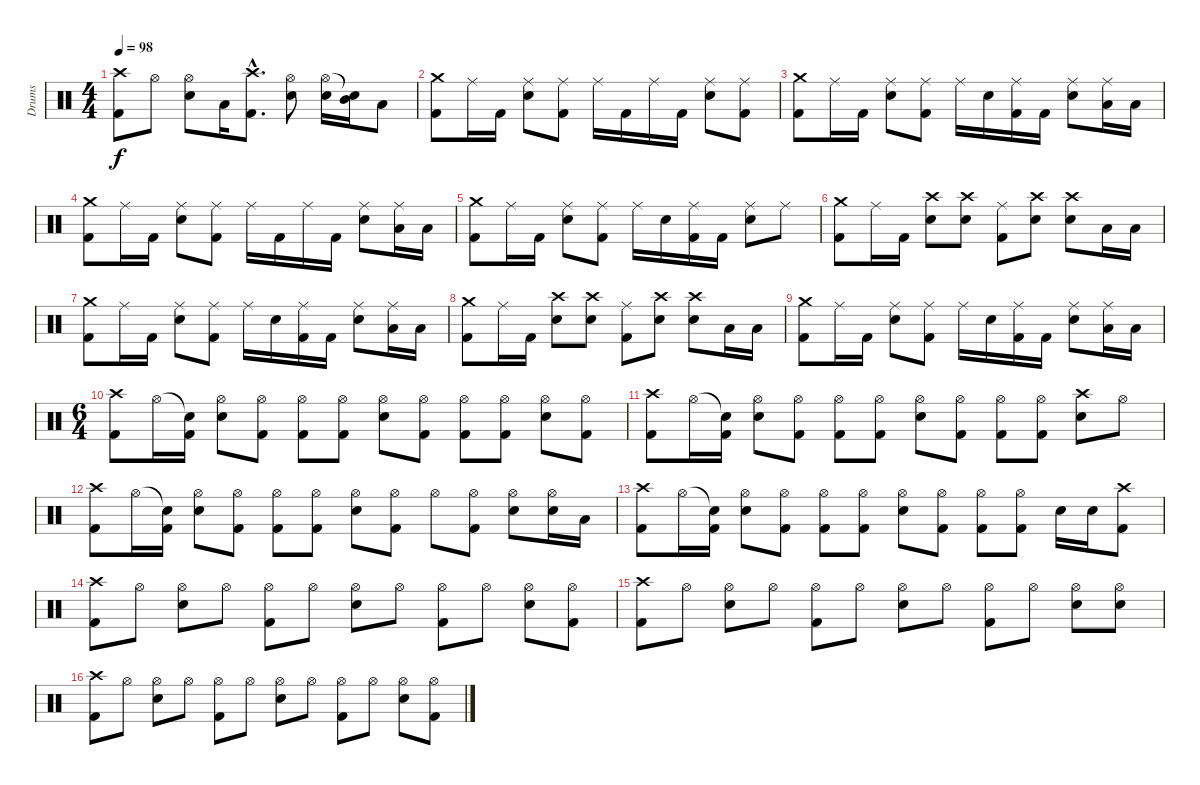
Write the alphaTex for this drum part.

\track ("Drums" "Drums") {instrument percussion}
\staff {score}
\articulation defaults
\ts (4 4)
\tempo 98
\clef neutral
\ks c
("Crash high (hit)" "Kick (hit) 2").8{dy f} "Hi-Hat (open)".8 ("Hi-Hat (open)" "Snare (hit) 2").8 "Low Tom (hit)".16 ("Crash high (hit)"{hac} "Kick (hit) 2"{hac}).8{d} ("Hi-Hat (open)" "Snare (hit) 2").8 ("Hi-Hat (open)" "Snare (hit) 2").16 ("Snare (hit)"{t} "Mid Tom (hit)").16 "Low Tom (hit)".8 |
("Crash medium (hit)" "Kick (hit) 2").8 "Ride (middle)".16 "Kick (hit) 2".16 ("Ride (middle)" "Snare (hit) 2").8 ("Ride (middle)" "Kick (hit) 2").8 "Ride (middle)".16 "Kick (hit) 2".16 "Ride (middle)".16 "Kick (hit) 2".16 ("Ride (middle)" "Snare (hit) 2").8 ("Ride (middle)" "Kick (hit) 2").8 |
("Crash medium (hit)" "Kick (hit) 2").8 "Ride (middle)".16 "Kick (hit) 2".16 ("Ride (middle)" "Snare (hit) 2").8 ("Ride (middle)" "Kick (hit) 2").8 "Ride (middle)".16 "Snare (hit) 2".16 ("Ride (middle)" "Kick (hit) 2").16 "Kick (hit) 2".16 ("Ride (middle)" "Snare (hit) 2").8 ("Ride (middle)" "Low Tom (hit)").16 "Low Tom (hit)".16 |
("Crash medium (hit)" "Kick (hit) 2").8 "Ride (middle)".16 "Kick (hit) 2".16 ("Ride (middle)" "Snare (hit) 2").8 ("Ride (middle)" "Kick (hit) 2").8 "Ride (middle)".16 "Kick (hit) 2".16 "Ride (middle)".16 "Kick (hit) 2".16 ("Ride (middle)" "Snare (hit) 2").8 ("Ride (middle)" "Low Tom (hit)").16 "Low Tom (hit)".16 |
("Crash medium (hit)" "Kick (hit) 2").8 "Ride (middle)".16 "Kick (hit) 2".16 ("Ride (middle)" "Snare (hit) 2").8 ("Ride (middle)" "Kick (hit) 2").8 "Ride (middle)".16 "Snare (hit) 2".16 ("Ride (middle)" "Kick (hit) 2").16 "Kick (hit) 2".16 ("Ride (middle)" "Snare (hit) 2").8 "Ride (middle)".8 |
("Crash medium (hit)" "Kick (hit) 2").8 "Ride (middle)".16 "Kick (hit) 2".16 ("Crash high (hit)" "Snare (hit) 2").8 ("Crash high (hit)" "Snare (hit) 2").8 ("Ride (middle)" "Kick (hit) 2").8 ("Crash high (hit)" "Snare (hit) 2").8 ("Crash high (hit)" "Snare (hit) 2").8 "Low Tom (hit)".16 "Low Tom (hit)".16 |
("Crash medium (hit)" "Kick (hit) 2").8 "Ride (middle)".16 "Kick (hit) 2".16 ("Ride (middle)" "Snare (hit) 2").8 ("Ride (middle)" "Kick (hit) 2").8 "Ride (middle)".16 "Snare (hit) 2".16 ("Ride (middle)" "Kick (hit) 2").16 "Kick (hit) 2".16 ("Ride (middle)" "Snare (hit) 2").8 ("Ride (middle)" "Low Tom (hit)").16 "Low Tom (hit)".16 |
("Crash medium (hit)" "Kick (hit) 2").8 "Ride (middle)".16 "Kick (hit) 2".16 ("Crash high (hit)" "Snare (hit) 2").8 ("Crash high (hit)" "Snare (hit) 2").8 ("Ride (middle)" "Kick (hit) 2").8 ("Crash high (hit)" "Snare (hit) 2").8 ("Crash high (hit)" "Snare (hit) 2").8 "Low Tom (hit)".16 "Low Tom (hit)".16 |
("Crash medium (hit)" "Kick (hit) 2").8 "Ride (middle)".16 "Kick (hit) 2".16 ("Ride (middle)" "Snare (hit) 2").8 ("Ride (middle)" "Kick (hit) 2").8 "Ride (middle)".16 "Snare (hit) 2".16 ("Ride (middle)" "Kick (hit) 2").16 "Kick (hit) 2".16 ("Ride (middle)" "Snare (hit) 2").8 ("Ride (middle)" "Low Tom (hit)").16 "Low Tom (hit)".16 |
\ts (6 4)
("Crash high (hit)" "Kick (hit) 2").8 "Hi-Hat (open)".16 ("Snare (hit)"{t} "Kick (hit) 2").16 ("Hi-Hat (open)" "Snare (hit) 2").8 ("Hi-Hat (open)" "Kick (hit) 2").8 ("Hi-Hat (open)" "Kick (hit) 2").8 ("Hi-Hat (open)" "Kick (hit) 2").8 ("Hi-Hat (open)" "Snare (hit) 2").8 ("Hi-Hat (open)" "Kick (hit) 2").8 ("Hi-Hat (open)" "Kick (hit) 2").8 ("Hi-Hat (open)" "Kick (hit) 2").8 ("Hi-Hat (open)" "Snare (hit) 2").8 ("Hi-Hat (open)" "Kick (hit) 2").8 |
("Crash high (hit)" "Kick (hit) 2").8 "Hi-Hat (open)".16 ("Snare (hit)"{t} "Kick (hit) 2").16 ("Hi-Hat (open)" "Snare (hit) 2").8 ("Hi-Hat (open)" "Kick (hit) 2").8 ("Hi-Hat (open)" "Kick (hit) 2").8 ("Hi-Hat (open)" "Kick (hit) 2").8 ("Hi-Hat (open)" "Snare (hit) 2").8 ("Hi-Hat (open)" "Kick (hit) 2").8 ("Hi-Hat (open)" "Kick (hit) 2").8 ("Hi-Hat (open)" "Kick (hit) 2").8 ("Crash high (hit)" "Snare (hit) 2").8 "Hi-Hat (open)".8 |
("Crash high (hit)" "Kick (hit) 2").8 "Hi-Hat (open)".16 ("Snare (hit)"{t} "Kick (hit) 2").16 ("Hi-Hat (open)" "Snare (hit) 2").8 ("Hi-Hat (open)" "Kick (hit) 2").8 ("Hi-Hat (open)" "Kick (hit) 2").8 ("Hi-Hat (open)" "Kick (hit) 2").8 ("Hi-Hat (open)" "Snare (hit) 2").8 ("Hi-Hat (open)" "Kick (hit) 2").8 "Hi-Hat (open)".8 ("Hi-Hat (open)" "Kick (hit) 2").8 ("Hi-Hat (open)" "Snare (hit) 2").8 ("Hi-Hat (open)" "Snare (hit) 2").16 "Low Tom (hit)".16 |
("Crash high (hit)" "Kick (hit) 2").8 "Hi-Hat (open)".16 ("Snare (hit)"{t} "Kick (hit) 2").16 ("Hi-Hat (open)" "Snare (hit) 2").8 ("Hi-Hat (open)" "Kick (hit) 2").8 ("Hi-Hat (open)" "Kick (hit) 2").8 ("Hi-Hat (open)" "Kick (hit) 2").8 ("Hi-Hat (open)" "Snare (hit) 2").8 ("Hi-Hat (open)" "Kick (hit) 2").8 ("Hi-Hat (open)" "Kick (hit) 2").8 ("Hi-Hat (open)" "Kick (hit) 2").8 "Snare (hit) 2".16 "Snare (hit) 2".16 ("Crash high (hit)" "Kick (hit) 2").8 |
("Crash high (hit)" "Kick (hit) 2").8 "Hi-Hat (open)".8 ("Hi-Hat (open)" "Snare (hit) 2").8 "Hi-Hat (open)".8 ("Hi-Hat (open)" "Kick (hit) 2").8 "Hi-Hat (open)".8 ("Hi-Hat (open)" "Snare (hit) 2").8 "Hi-Hat (open)".8 ("Hi-Hat (open)" "Kick (hit) 2").8 "Hi-Hat (open)".8 ("Hi-Hat (open)" "Snare (hit) 2").8 ("Hi-Hat (open)" "Kick (hit) 2").8 |
("Crash high (hit)" "Kick (hit) 2").8 "Hi-Hat (open)".8 ("Hi-Hat (open)" "Snare (hit) 2").8 "Hi-Hat (open)".8 ("Hi-Hat (open)" "Kick (hit) 2").8 "Hi-Hat (open)".8 ("Hi-Hat (open)" "Snare (hit) 2").8 "Hi-Hat (open)".8 ("Hi-Hat (open)" "Kick (hit) 2").8 "Hi-Hat (open)".8 ("Hi-Hat (open)" "Snare (hit) 2").8 ("Hi-Hat (open)" "Snare (hit) 2").8 |
("Crash high (hit)" "Kick (hit) 2").8 "Hi-Hat (open)".8 ("Hi-Hat (open)" "Snare (hit) 2").8 "Hi-Hat (open)".8 ("Hi-Hat (open)" "Kick (hit) 2").8 "Hi-Hat (open)".8 ("Hi-Hat (open)" "Snare (hit) 2").8 "Hi-Hat (open)".8 ("Hi-Hat (open)" "Kick (hit) 2").8 "Hi-Hat (open)".8 ("Hi-Hat (open)" "Snare (hit) 2").8 ("Hi-Hat (open)" "Kick (hit) 2").8
